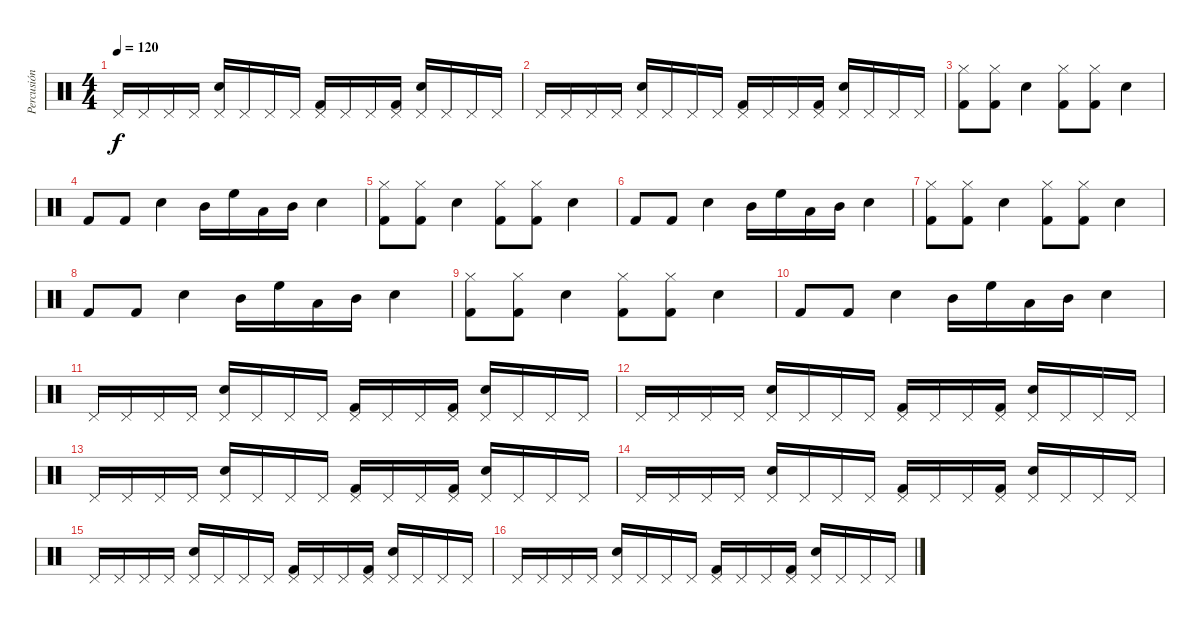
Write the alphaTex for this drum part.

\track ("Percusión" "Percusión") {instrument percussion}
\staff {score}
\articulation defaults
\ts (4 4)
\tempo 120
\clef neutral
\ks c "Pedal Hi-Hat (hit)".16{dy f} "Pedal Hi-Hat (hit)".16 "Pedal Hi-Hat (hit)".16 "Pedal Hi-Hat (hit)".16
("Pedal Hi-Hat (hit)" "Snare (hit) 2").16 "Pedal Hi-Hat (hit)".16 "Pedal Hi-Hat (hit)".16 "Pedal Hi-Hat (hit)".16 ("Pedal Hi-Hat (hit)" "Kick (hit) 2").16 "Pedal Hi-Hat (hit)".16 "Pedal Hi-Hat (hit)".16 ("Pedal Hi-Hat (hit)" "Kick (hit) 2").16 ("Pedal Hi-Hat (hit)" "Snare (hit) 2").16 "Pedal Hi-Hat (hit)".16 "Pedal Hi-Hat (hit)".16 "Pedal Hi-Hat (hit)".16 |
"Pedal Hi-Hat (hit)".16 "Pedal Hi-Hat (hit)".16 "Pedal Hi-Hat (hit)".16 "Pedal Hi-Hat (hit)".16 ("Pedal Hi-Hat (hit)" "Snare (hit) 2").16 "Pedal Hi-Hat (hit)".16 "Pedal Hi-Hat (hit)".16 "Pedal Hi-Hat (hit)".16 ("Pedal Hi-Hat (hit)" "Kick (hit) 2").16 "Pedal Hi-Hat (hit)".16 "Pedal Hi-Hat (hit)".16 ("Pedal Hi-Hat (hit)" "Kick (hit) 2").16 ("Pedal Hi-Hat (hit)" "Snare (hit) 2").16 "Pedal Hi-Hat (hit)".16 "Pedal Hi-Hat (hit)".16 "Pedal Hi-Hat (hit)".16 |
("Hi-Hat (closed)" "Kick (hit) 2").8 ("Hi-Hat (closed)" "Kick (hit) 2").8 "Snare (hit) 2".4 ("Hi-Hat (closed)" "Kick (hit) 2").8 ("Hi-Hat (closed)" "Kick (hit) 2").8 "Snare (hit) 2".4 |
"Kick (hit) 2".8 "Kick (hit) 2".8 "Snare (hit) 2".4 "Mid Tom (hit)".16 "High Floor Tom (hit)".16 "Low Tom (hit)".16 "Mid Tom (hit)".16 "Snare (hit) 2".4 |
("Hi-Hat (closed)" "Kick (hit) 2").8 ("Hi-Hat (closed)" "Kick (hit) 2").8 "Snare (hit) 2".4 ("Hi-Hat (closed)" "Kick (hit) 2").8 ("Hi-Hat (closed)" "Kick (hit) 2").8 "Snare (hit) 2".4 |
"Kick (hit) 2".8 "Kick (hit) 2".8 "Snare (hit) 2".4 "Mid Tom (hit)".16 "High Floor Tom (hit)".16 "Low Tom (hit)".16 "Mid Tom (hit)".16 "Snare (hit) 2".4 |
("Hi-Hat (closed)" "Kick (hit) 2").8 ("Hi-Hat (closed)" "Kick (hit) 2").8 "Snare (hit) 2".4 ("Hi-Hat (closed)" "Kick (hit) 2").8 ("Hi-Hat (closed)" "Kick (hit) 2").8 "Snare (hit) 2".4 |
"Kick (hit) 2".8 "Kick (hit) 2".8 "Snare (hit) 2".4 "Mid Tom (hit)".16 "High Floor Tom (hit)".16 "Low Tom (hit)".16 "Mid Tom (hit)".16 "Snare (hit) 2".4 |
("Hi-Hat (closed)" "Kick (hit) 2").8 ("Hi-Hat (closed)" "Kick (hit) 2").8 "Snare (hit) 2".4 ("Hi-Hat (closed)" "Kick (hit) 2").8 ("Hi-Hat (closed)" "Kick (hit) 2").8 "Snare (hit) 2".4 |
"Kick (hit) 2".8 "Kick (hit) 2".8 "Snare (hit) 2".4 "Mid Tom (hit)".16 "High Floor Tom (hit)".16 "Low Tom (hit)".16 "Mid Tom (hit)".16 "Snare (hit) 2".4 |
"Pedal Hi-Hat (hit)".16 "Pedal Hi-Hat (hit)".16 "Pedal Hi-Hat (hit)".16 "Pedal Hi-Hat (hit)".16 ("Pedal Hi-Hat (hit)" "Snare (hit) 2").16 "Pedal Hi-Hat (hit)".16 "Pedal Hi-Hat (hit)".16 "Pedal Hi-Hat (hit)".16 ("Pedal Hi-Hat (hit)" "Kick (hit) 2").16 "Pedal Hi-Hat (hit)".16 "Pedal Hi-Hat (hit)".16 ("Pedal Hi-Hat (hit)" "Kick (hit) 2").16 ("Pedal Hi-Hat (hit)" "Snare (hit) 2").16 "Pedal Hi-Hat (hit)".16 "Pedal Hi-Hat (hit)".16 "Pedal Hi-Hat (hit)".16 |
"Pedal Hi-Hat (hit)".16 "Pedal Hi-Hat (hit)".16 "Pedal Hi-Hat (hit)".16 "Pedal Hi-Hat (hit)".16 ("Pedal Hi-Hat (hit)" "Snare (hit) 2").16 "Pedal Hi-Hat (hit)".16 "Pedal Hi-Hat (hit)".16 "Pedal Hi-Hat (hit)".16 ("Pedal Hi-Hat (hit)" "Kick (hit) 2").16 "Pedal Hi-Hat (hit)".16 "Pedal Hi-Hat (hit)".16 ("Pedal Hi-Hat (hit)" "Kick (hit) 2").16 ("Pedal Hi-Hat (hit)" "Snare (hit) 2").16 "Pedal Hi-Hat (hit)".16 "Pedal Hi-Hat (hit)".16 "Pedal Hi-Hat (hit)".16 |
"Pedal Hi-Hat (hit)".16 "Pedal Hi-Hat (hit)".16 "Pedal Hi-Hat (hit)".16 "Pedal Hi-Hat (hit)".16 ("Pedal Hi-Hat (hit)" "Snare (hit) 2").16 "Pedal Hi-Hat (hit)".16 "Pedal Hi-Hat (hit)".16 "Pedal Hi-Hat (hit)".16 ("Pedal Hi-Hat (hit)" "Kick (hit) 2").16 "Pedal Hi-Hat (hit)".16 "Pedal Hi-Hat (hit)".16 ("Pedal Hi-Hat (hit)" "Kick (hit) 2").16 ("Pedal Hi-Hat (hit)" "Snare (hit) 2").16 "Pedal Hi-Hat (hit)".16 "Pedal Hi-Hat (hit)".16 "Pedal Hi-Hat (hit)".16 |
"Pedal Hi-Hat (hit)".16 "Pedal Hi-Hat (hit)".16 "Pedal Hi-Hat (hit)".16 "Pedal Hi-Hat (hit)".16 ("Pedal Hi-Hat (hit)" "Snare (hit) 2").16 "Pedal Hi-Hat (hit)".16 "Pedal Hi-Hat (hit)".16 "Pedal Hi-Hat (hit)".16 ("Pedal Hi-Hat (hit)" "Kick (hit) 2").16 "Pedal Hi-Hat (hit)".16 "Pedal Hi-Hat (hit)".16 ("Pedal Hi-Hat (hit)" "Kick (hit) 2").16 ("Pedal Hi-Hat (hit)" "Snare (hit) 2").16 "Pedal Hi-Hat (hit)".16 "Pedal Hi-Hat (hit)".16 "Pedal Hi-Hat (hit)".16 |
"Pedal Hi-Hat (hit)".16 "Pedal Hi-Hat (hit)".16 "Pedal Hi-Hat (hit)".16 "Pedal Hi-Hat (hit)".16 ("Pedal Hi-Hat (hit)" "Snare (hit) 2").16 "Pedal Hi-Hat (hit)".16 "Pedal Hi-Hat (hit)".16 "Pedal Hi-Hat (hit)".16 ("Pedal Hi-Hat (hit)" "Kick (hit) 2").16 "Pedal Hi-Hat (hit)".16 "Pedal Hi-Hat (hit)".16 ("Pedal Hi-Hat (hit)" "Kick (hit) 2").16 ("Pedal Hi-Hat (hit)" "Snare (hit) 2").16 "Pedal Hi-Hat (hit)".16 "Pedal Hi-Hat (hit)".16 "Pedal Hi-Hat (hit)".16 |
"Pedal Hi-Hat (hit)".16 "Pedal Hi-Hat (hit)".16 "Pedal Hi-Hat (hit)".16 "Pedal Hi-Hat (hit)".16 ("Pedal Hi-Hat (hit)" "Snare (hit) 2").16 "Pedal Hi-Hat (hit)".16 "Pedal Hi-Hat (hit)".16 "Pedal Hi-Hat (hit)".16 ("Pedal Hi-Hat (hit)" "Kick (hit) 2").16 "Pedal Hi-Hat (hit)".16 "Pedal Hi-Hat (hit)".16 ("Pedal Hi-Hat (hit)" "Kick (hit) 2").16 ("Pedal Hi-Hat (hit)" "Snare (hit) 2").16 "Pedal Hi-Hat (hit)".16 "Pedal Hi-Hat (hit)".16 "Pedal Hi-Hat (hit)".16
